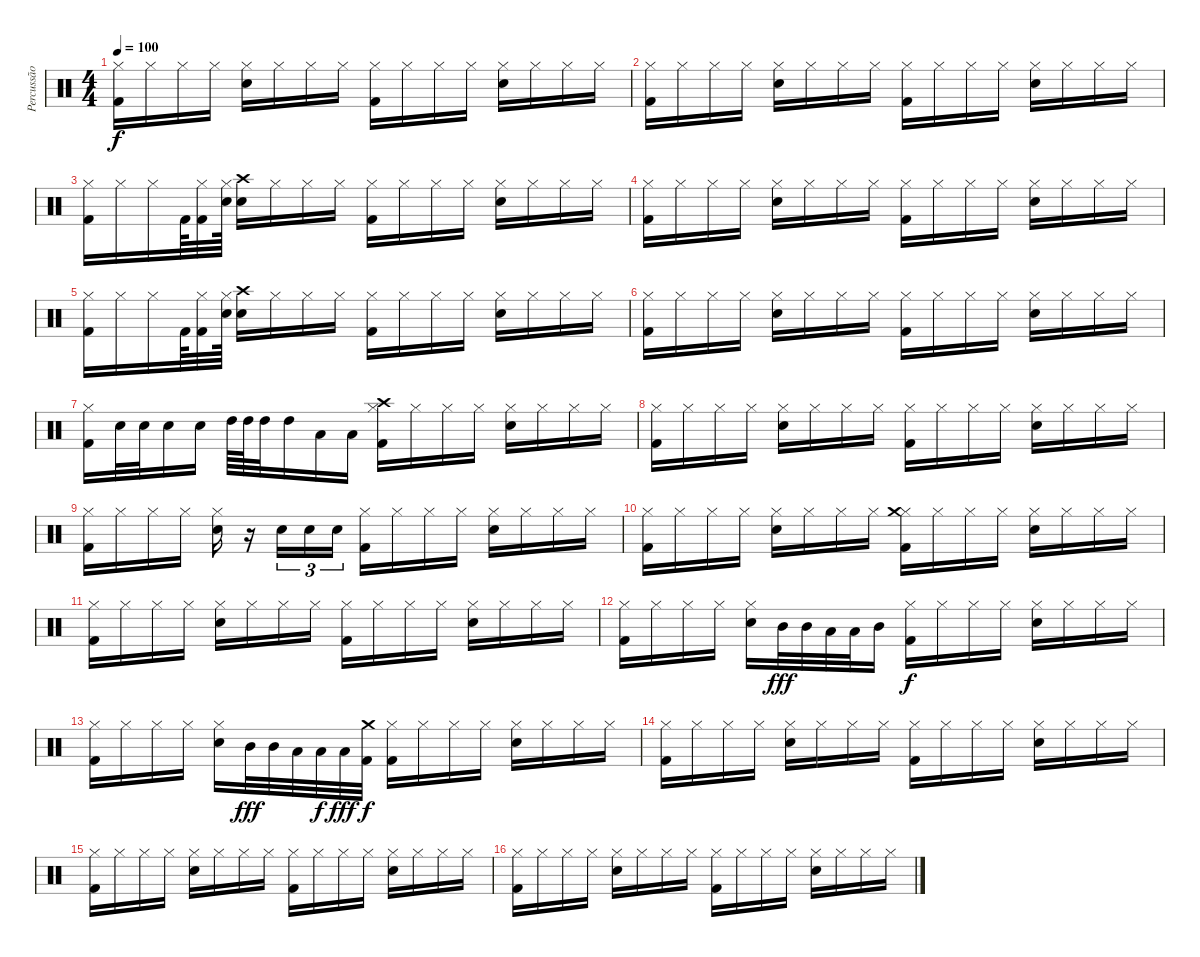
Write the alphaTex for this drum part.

\track ("Percussão" "Percussão") {instrument percussion}
\staff {score}
\articulation defaults
\ts (4 4)
\tempo 100
\clef neutral
\ks c
("Hi-Hat (closed)" "Kick (hit) 2").16{dy f} "Hi-Hat (closed)".16 "Hi-Hat (closed)".16 "Hi-Hat (closed)".16 ("Hi-Hat (closed)" "Snare (hit) 2").16 "Hi-Hat (closed)".16 "Hi-Hat (closed)".16 "Hi-Hat (closed)".16 ("Hi-Hat (closed)" "Kick (hit) 2").16 "Hi-Hat (closed)".16 "Hi-Hat (closed)".16 "Hi-Hat (closed)".16 ("Hi-Hat (closed)" "Snare (hit) 2").16 "Hi-Hat (closed)".16 "Hi-Hat (closed)".16 "Hi-Hat (closed)".16 |
("Hi-Hat (closed)" "Kick (hit) 2").16 "Hi-Hat (closed)".16 "Hi-Hat (closed)".16 "Hi-Hat (closed)".16 ("Hi-Hat (closed)" "Snare (hit) 2").16 "Hi-Hat (closed)".16 "Hi-Hat (closed)".16 "Hi-Hat (closed)".16 ("Hi-Hat (closed)" "Kick (hit) 2").16 "Hi-Hat (closed)".16 "Hi-Hat (closed)".16 "Hi-Hat (closed)".16 ("Hi-Hat (closed)" "Snare (hit) 2").16 "Hi-Hat (closed)".16 "Hi-Hat (closed)".16 "Hi-Hat (closed)".16 |
("Hi-Hat (closed)" "Kick (hit) 2").16 "Hi-Hat (closed)".16 "Hi-Hat (closed)".16 "Kick (hit) 2".64 ("Hi-Hat (closed)" "Kick (hit) 2").32 ("Hi-Hat (closed)" "Snare (hit) 2").64 ("Crash high (hit)" "Snare (hit) 2").16 "Hi-Hat (closed)".16 "Hi-Hat (closed)".16 "Hi-Hat (closed)".16 ("Hi-Hat (closed)" "Kick (hit) 2").16 "Hi-Hat (closed)".16 "Hi-Hat (closed)".16 "Hi-Hat (closed)".16 ("Hi-Hat (closed)" "Snare (hit) 2").16 "Hi-Hat (closed)".16 "Hi-Hat (closed)".16 "Hi-Hat (closed)".16 |
("Hi-Hat (closed)" "Kick (hit) 2").16 "Hi-Hat (closed)".16 "Hi-Hat (closed)".16 "Hi-Hat (closed)".16 ("Hi-Hat (closed)" "Snare (hit) 2").16 "Hi-Hat (closed)".16 "Hi-Hat (closed)".16 "Hi-Hat (closed)".16 ("Hi-Hat (closed)" "Kick (hit) 2").16 "Hi-Hat (closed)".16 "Hi-Hat (closed)".16 "Hi-Hat (closed)".16 ("Hi-Hat (closed)" "Snare (hit) 2").16 "Hi-Hat (closed)".16 "Hi-Hat (closed)".16 "Hi-Hat (closed)".16 |
("Hi-Hat (closed)" "Kick (hit) 2").16 "Hi-Hat (closed)".16 "Hi-Hat (closed)".16 "Kick (hit) 2".64 ("Hi-Hat (closed)" "Kick (hit) 2").32 ("Hi-Hat (closed)" "Snare (hit) 2").64 ("Crash high (hit)" "Snare (hit) 2").16 "Hi-Hat (closed)".16 "Hi-Hat (closed)".16 "Hi-Hat (closed)".16 ("Hi-Hat (closed)" "Kick (hit) 2").16 "Hi-Hat (closed)".16 "Hi-Hat (closed)".16 "Hi-Hat (closed)".16 ("Hi-Hat (closed)" "Snare (hit) 2").16 "Hi-Hat (closed)".16 "Hi-Hat (closed)".16 "Hi-Hat (closed)".16 |
("Hi-Hat (closed)" "Kick (hit) 2").16 "Hi-Hat (closed)".16 "Hi-Hat (closed)".16 "Hi-Hat (closed)".16 ("Hi-Hat (closed)" "Snare (hit) 2").16 "Hi-Hat (closed)".16 "Hi-Hat (closed)".16 "Hi-Hat (closed)".16 ("Hi-Hat (closed)" "Kick (hit) 2").16 "Hi-Hat (closed)".16 "Hi-Hat (closed)".16 "Hi-Hat (closed)".16 ("Hi-Hat (closed)" "Snare (hit) 2").16 "Hi-Hat (closed)".16 "Hi-Hat (closed)".16 "Hi-Hat (closed)".16 |
("Hi-Hat (closed)" "Kick (hit) 2").16 "Snare (hit) 2".32 "Snare (hit) 2".32 "Snare (hit) 2".16 "Snare (hit) 2".16 "High Tom (hit)".64 "High Tom (hit)".64 "High Tom (hit)".32 "High Tom (hit)".16 "Low Tom (hit)".16 "Low Tom (hit)".16 ("Hi-Hat (closed)" "Kick (hit) 2" "Crash high (hit)").16 "Hi-Hat (closed)".16 "Hi-Hat (closed)".16 "Hi-Hat (closed)".16 ("Hi-Hat (closed)" "Snare (hit) 2").16 "Hi-Hat (closed)".16 "Hi-Hat (closed)".16 "Hi-Hat (closed)".16 |
("Hi-Hat (closed)" "Kick (hit) 2").16 "Hi-Hat (closed)".16 "Hi-Hat (closed)".16 "Hi-Hat (closed)".16 ("Hi-Hat (closed)" "Snare (hit) 2").16 "Hi-Hat (closed)".16 "Hi-Hat (closed)".16 "Hi-Hat (closed)".16 ("Hi-Hat (closed)" "Kick (hit) 2").16 "Hi-Hat (closed)".16 "Hi-Hat (closed)".16 "Hi-Hat (closed)".16 ("Hi-Hat (closed)" "Snare (hit) 2").16 "Hi-Hat (closed)".16 "Hi-Hat (closed)".16 "Hi-Hat (closed)".16 |
("Hi-Hat (closed)" "Kick (hit) 2").16 "Hi-Hat (closed)".16 "Hi-Hat (closed)".16 "Hi-Hat (closed)".16 ("Hi-Hat (closed)" "Snare (hit) 2").16 r.16 "Snare (hit) 2".16{tu (3 2)} "Snare (hit) 2".16{tu (3 2)} "Snare (hit) 2".16{tu (3 2)} ("Hi-Hat (closed)" "Kick (hit) 2").16 "Hi-Hat (closed)".16 "Hi-Hat (closed)".16 "Hi-Hat (closed)".16 ("Hi-Hat (closed)" "Snare (hit) 2").16 "Hi-Hat (closed)".16 "Hi-Hat (closed)".16 "Hi-Hat (closed)".16 |
("Hi-Hat (closed)" "Kick (hit) 2").16 "Hi-Hat (closed)".16 "Hi-Hat (closed)".16 "Hi-Hat (closed)".16 ("Hi-Hat (closed)" "Snare (hit) 2").16 "Hi-Hat (closed)".16 "Hi-Hat (closed)".16 "Hi-Hat (closed)".16 ("Hi-Hat (closed)" "Kick (hit) 2" "Crash medium (hit)").16 "Hi-Hat (closed)".16 "Hi-Hat (closed)".16 "Hi-Hat (closed)".16 ("Hi-Hat (closed)" "Snare (hit) 2").16 "Hi-Hat (closed)".16 "Hi-Hat (closed)".16 "Hi-Hat (closed)".16 |
("Hi-Hat (closed)" "Kick (hit) 2").16 "Hi-Hat (closed)".16 "Hi-Hat (closed)".16 "Hi-Hat (closed)".16 ("Hi-Hat (closed)" "Snare (hit) 2").16 "Hi-Hat (closed)".16 "Hi-Hat (closed)".16 "Hi-Hat (closed)".16 ("Hi-Hat (closed)" "Kick (hit) 2").16 "Hi-Hat (closed)".16 "Hi-Hat (closed)".16 "Hi-Hat (closed)".16 ("Hi-Hat (closed)" "Snare (hit) 2").16 "Hi-Hat (closed)".16 "Hi-Hat (closed)".16 "Hi-Hat (closed)".16 |
("Hi-Hat (closed)" "Kick (hit) 2").16 "Hi-Hat (closed)".16 "Hi-Hat (closed)".16 "Hi-Hat (closed)".16 ("Hi-Hat (closed)" "Snare (hit) 2").16 "Mid Tom (hit)".32{dy fff} "Mid Tom (hit)".32 "Low Tom (hit)".32 "Low Tom (hit)".32 "Mid Tom (hit)".16 ("Hi-Hat (closed)" "Kick (hit) 2").16{dy f} "Hi-Hat (closed)".16 "Hi-Hat (closed)".16 "Hi-Hat (closed)".16 ("Hi-Hat (closed)" "Snare (hit) 2").16 "Hi-Hat (closed)".16 "Hi-Hat (closed)".16 "Hi-Hat (closed)".16 |
("Hi-Hat (closed)" "Kick (hit) 2").16 "Hi-Hat (closed)".16 "Hi-Hat (closed)".16 "Hi-Hat (closed)".16 ("Hi-Hat (closed)" "Snare (hit) 2").16 "Mid Tom (hit)".32{dy fff} "Mid Tom (hit)".32 "Low Tom (hit)".32 "Low Tom (hit)".32{dy f} "Low Tom (hit)".32{dy fff} ("Kick (hit) 2" "Crash medium (hit)").32{dy f} ("Hi-Hat (closed)" "Kick (hit) 2").16 "Hi-Hat (closed)".16 "Hi-Hat (closed)".16 "Hi-Hat (closed)".16 ("Hi-Hat (closed)" "Snare (hit) 2").16 "Hi-Hat (closed)".16 "Hi-Hat (closed)".16 "Hi-Hat (closed)".16 |
("Hi-Hat (closed)" "Kick (hit) 2").16 "Hi-Hat (closed)".16 "Hi-Hat (closed)".16 "Hi-Hat (closed)".16 ("Hi-Hat (closed)" "Snare (hit) 2").16 "Hi-Hat (closed)".16 "Hi-Hat (closed)".16 "Hi-Hat (closed)".16 ("Hi-Hat (closed)" "Kick (hit) 2").16 "Hi-Hat (closed)".16 "Hi-Hat (closed)".16 "Hi-Hat (closed)".16 ("Hi-Hat (closed)" "Snare (hit) 2").16 "Hi-Hat (closed)".16 "Hi-Hat (closed)".16 "Hi-Hat (closed)".16 |
("Hi-Hat (closed)" "Kick (hit) 2").16 "Hi-Hat (closed)".16 "Hi-Hat (closed)".16 "Hi-Hat (closed)".16 ("Hi-Hat (closed)" "Snare (hit) 2").16 "Hi-Hat (closed)".16 "Hi-Hat (closed)".16 "Hi-Hat (closed)".16 ("Hi-Hat (closed)" "Kick (hit) 2").16 "Hi-Hat (closed)".16 "Hi-Hat (closed)".16 "Hi-Hat (closed)".16 ("Hi-Hat (closed)" "Snare (hit) 2").16 "Hi-Hat (closed)".16 "Hi-Hat (closed)".16 "Hi-Hat (closed)".16 |
("Hi-Hat (closed)" "Kick (hit) 2").16 "Hi-Hat (closed)".16 "Hi-Hat (closed)".16 "Hi-Hat (closed)".16 ("Hi-Hat (closed)" "Snare (hit) 2").16 "Hi-Hat (closed)".16 "Hi-Hat (closed)".16 "Hi-Hat (closed)".16 ("Hi-Hat (closed)" "Kick (hit) 2").16 "Hi-Hat (closed)".16 "Hi-Hat (closed)".16 "Hi-Hat (closed)".16 ("Hi-Hat (closed)" "Snare (hit) 2").16 "Hi-Hat (closed)".16 "Hi-Hat (closed)".16 "Hi-Hat (closed)".16
